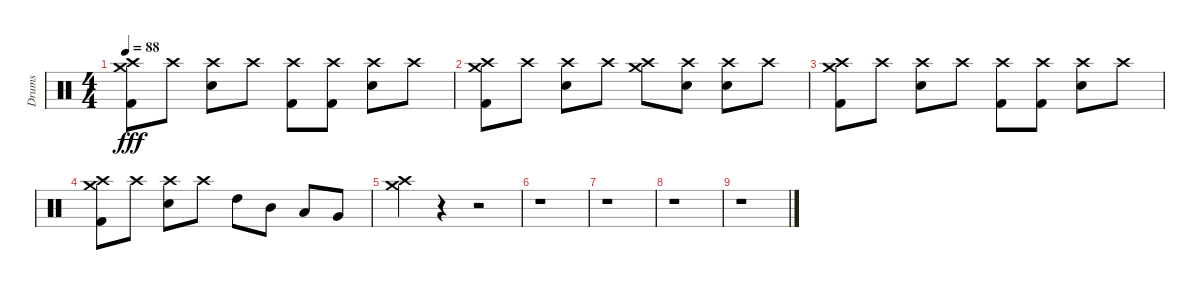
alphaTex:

\track ("Drums" "Drums") {instrument percussion}
\staff {score}
\articulation defaults
\ts (4 4)
\tempo 88
\clef neutral
\ks c
("Crash high (hit)" "Crash medium (hit)" "Kick (hit) 2").8{dy fff} "Crash high (hit)".8 ("Crash high (hit)" "Electric Snare (hit)").8 "Crash high (hit)".8 ("Crash high (hit)" "Kick (hit) 2").8 ("Crash high (hit)" "Kick (hit) 2").8 ("Crash high (hit)" "Electric Snare (hit)").8 "Crash high (hit)".8 |
("Crash high (hit)" "Crash medium (hit)" "Kick (hit) 2").8 "Crash high (hit)".8 ("Crash high (hit)" "Electric Snare (hit)").8 "Crash high (hit)".8 ("Crash high (hit)" "Crash medium (hit)").8 ("Crash high (hit)" "Electric Snare (hit)").8 ("Crash high (hit)" "Electric Snare (hit)").8 "Crash high (hit)".8 |
("Crash high (hit)" "Crash medium (hit)" "Kick (hit) 2").8 "Crash high (hit)".8 ("Crash high (hit)" "Electric Snare (hit)").8 "Crash high (hit)".8 ("Crash high (hit)" "Kick (hit) 2").8 ("Crash high (hit)" "Kick (hit) 2").8 ("Crash high (hit)" "Electric Snare (hit)").8 "Crash high (hit)".8 |
("Crash high (hit)" "Crash medium (hit)" "Kick (hit) 2").8 "Crash high (hit)".8 ("Crash high (hit)" "Electric Snare (hit)").8 "Crash high (hit)".8 "High Tom (hit)".8 "Mid Tom (hit)".8 "Low Tom (hit)".8 "Very Low Tom (hit)".8 |
("Crash high (hit)" "Crash medium (hit)").4 r.4 r.2 |
r.1 |
r.1 |
r.1 |
r.1
